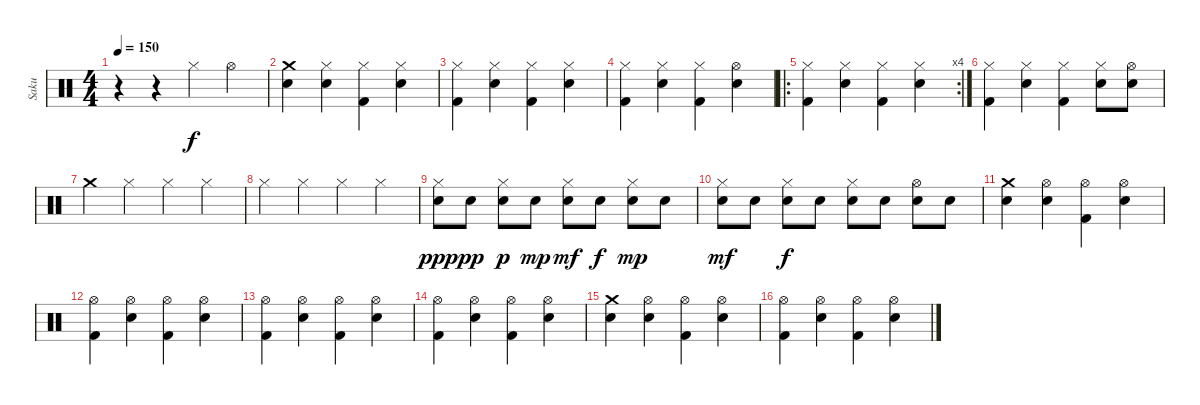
\track ("Saku" "Saku") {instrument percussion}
\staff {score}
\articulation defaults
\ts (4 4)
\tempo 150
\clef neutral
\ks c
r.4{dy f} r.4 "Hi-Hat (closed)".4 "Hi-Hat (open)".4 |
("Crash medium (hit)" "Electric Snare (hit)").4 ("Hi-Hat (closed)" "Electric Snare (hit)").4 ("Hi-Hat (closed)" "Kick (hit) 2").4 ("Hi-Hat (closed)" "Electric Snare (hit)").4 |
("Hi-Hat (closed)" "Kick (hit) 2").4 ("Hi-Hat (closed)" "Electric Snare (hit)").4 ("Hi-Hat (closed)" "Kick (hit) 2").4 ("Hi-Hat (closed)" "Electric Snare (hit)").4 |
("Hi-Hat (closed)" "Kick (hit) 2").4 ("Hi-Hat (closed)" "Electric Snare (hit)").4 ("Hi-Hat (closed)" "Kick (hit) 2").4 ("Hi-Hat (open)" "Electric Snare (hit)").4 |
\ro
\rc 4
("Hi-Hat (closed)" "Kick (hit) 2").4 ("Hi-Hat (closed)" "Electric Snare (hit)").4 ("Hi-Hat (closed)" "Kick (hit) 2").4 ("Hi-Hat (closed)" "Electric Snare (hit)").4 |
("Hi-Hat (closed)" "Kick (hit) 2").4 ("Hi-Hat (closed)" "Electric Snare (hit)").4 ("Hi-Hat (closed)" "Kick (hit) 2").4 ("Hi-Hat (closed)" "Electric Snare (hit)").8 ("Hi-Hat (open)" "Electric Snare (hit)").8 |
"Crash medium (hit)".4 "Hi-Hat (closed)".4 "Hi-Hat (closed)".4 "Hi-Hat (closed)".4 |
"Hi-Hat (closed)".4 "Hi-Hat (closed)".4 "Hi-Hat (closed)".4 "Hi-Hat (closed)".4 |
("Hi-Hat (closed)" "Electric Snare (hit)").8{dy ppp} "Electric Snare (hit)".8{dy pp} ("Hi-Hat (closed)" "Electric Snare (hit)").8{dy p} "Electric Snare (hit)".8{dy mp} ("Hi-Hat (closed)" "Electric Snare (hit)").8{dy mf} "Electric Snare (hit)".8{dy f} ("Hi-Hat (closed)" "Electric Snare (hit)").8{dy mp} "Electric Snare (hit)".8 |
("Hi-Hat (closed)" "Electric Snare (hit)").8{dy mf} "Electric Snare (hit)".8 ("Hi-Hat (closed)" "Electric Snare (hit)").8{dy f} "Electric Snare (hit)".8 ("Hi-Hat (closed)" "Electric Snare (hit)").8 "Electric Snare (hit)".8 ("Hi-Hat (open)" "Electric Snare (hit)").8 "Electric Snare (hit)".8 |
("Crash medium (hit)" "Electric Snare (hit)").4 ("Hi-Hat (open)" "Electric Snare (hit)").4 ("Hi-Hat (open)" "Kick (hit) 2").4 ("Hi-Hat (open)" "Electric Snare (hit)").4 |
("Hi-Hat (open)" "Kick (hit) 2").4 ("Hi-Hat (open)" "Electric Snare (hit)").4 ("Hi-Hat (open)" "Kick (hit) 2").4 ("Hi-Hat (open)" "Electric Snare (hit)").4 |
("Hi-Hat (open)" "Kick (hit) 2").4 ("Hi-Hat (open)" "Electric Snare (hit)").4 ("Hi-Hat (open)" "Kick (hit) 2").4 ("Hi-Hat (open)" "Electric Snare (hit)").4 |
("Hi-Hat (open)" "Kick (hit) 2").4 ("Hi-Hat (open)" "Electric Snare (hit)").4 ("Hi-Hat (open)" "Kick (hit) 2").4 ("Hi-Hat (open)" "Electric Snare (hit)").4 |
("Crash medium (hit)" "Electric Snare (hit)").4 ("Hi-Hat (open)" "Electric Snare (hit)").4 ("Hi-Hat (open)" "Kick (hit) 2").4 ("Hi-Hat (open)" "Electric Snare (hit)").4 |
("Hi-Hat (open)" "Kick (hit) 2").4 ("Hi-Hat (open)" "Electric Snare (hit)").4 ("Hi-Hat (open)" "Kick (hit) 2").4 ("Hi-Hat (open)" "Electric Snare (hit)").4
